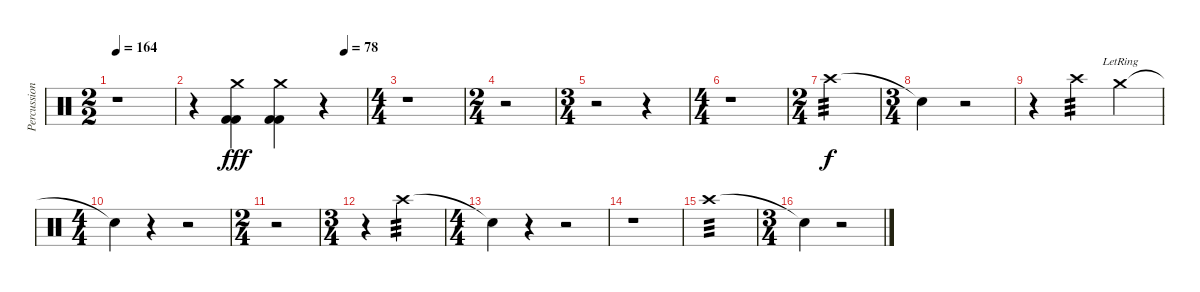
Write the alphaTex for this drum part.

\track ("Percussion" "Percussion") {instrument percussion}
\staff {score}
\articulation defaults
\ts (2 2)
\tempo 164
\clef neutral
\ks c
r.1{dy f} |
\tempo (78 0.875)
r.4 ("Crash medium (hit)" "Kick (hit) 2" "Kick (hit) 2").4{dy fff} ("Crash medium (hit)" "Kick (hit) 2" "Kick (hit) 2").4 r.4 |
\ts (4 4)
r.1 |
\ts (2 4)
r.2 |
\ts (3 4)
r.2 r.4 |
\ts (4 4)
r.1 |
\ts (2 4)
"Crash high (hit)".2{tp 3 dy f} |
\ts (3 4)
"Snare (hit)"{t}.4 r.2 |
r.4 "Crash high (hit)".4{tp 3} "Crash medium (hit)"{lr}.4 |
\ts (4 4)
"Snare (hit)"{t}.4 r.4 r.2 |
\ts (2 4)
r.2 |
\ts (3 4)
r.4 "Crash high (hit)".2{tp 3} |
\ts (4 4)
"Snare (hit)"{t}.4 r.4 r.2 |
r.1 |
"Crash high (hit)".1{tp 3} |
\ts (3 4)
"Snare (hit)"{t}.4 r.2
